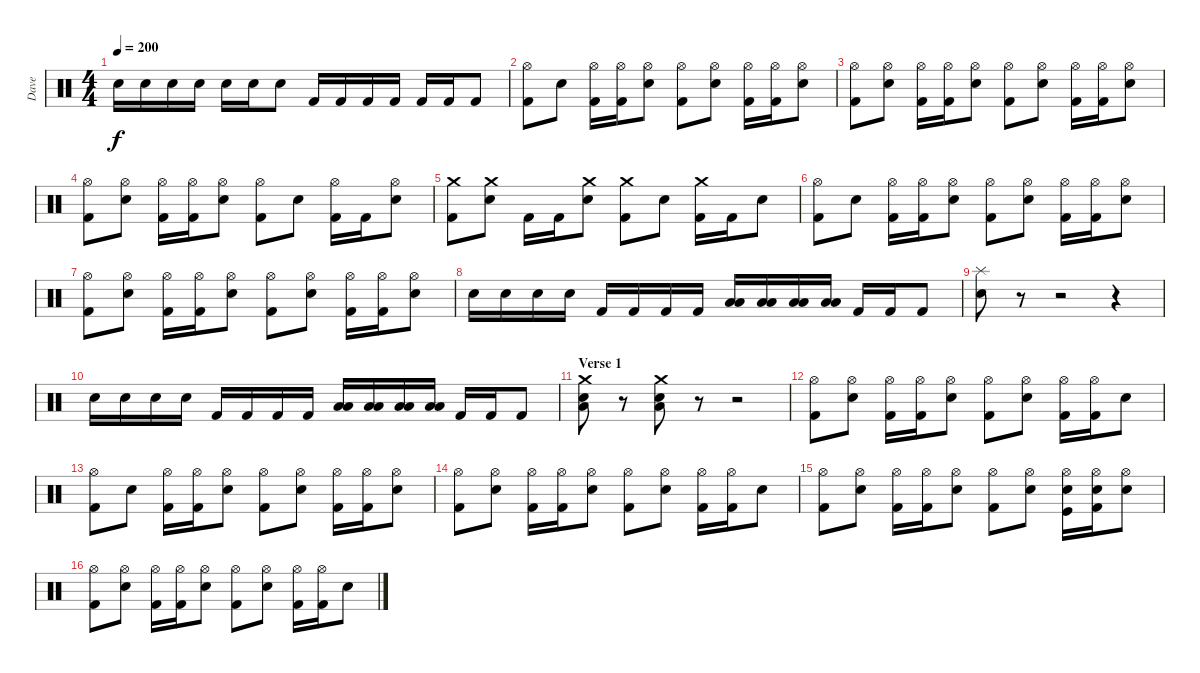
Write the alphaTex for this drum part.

\track ("Dave" "Dave") {instrument percussion}
\staff {score}
\articulation defaults
\ts (4 4)
\tempo 200
\clef neutral
\ks c "Snare (hit) 2".16{dy f} "Snare (hit) 2".16 "Snare (hit) 2".16 "Snare (hit) 2".16 "Snare (hit) 2".16 "Snare (hit) 2".16 "Snare (hit) 2".8 "Kick (hit) 2".16 "Kick (hit) 2".16 "Kick (hit) 2".16 "Kick (hit) 2".16 "Kick (hit) 2".16 "Kick (hit) 2".16 "Kick (hit) 2".8
|
("Hi-Hat (open)" "Kick (hit) 2").8 "Snare (hit) 2".8 ("Hi-Hat (open)" "Kick (hit) 2").16 ("Hi-Hat (open)" "Kick (hit) 2").16 ("Hi-Hat (open)" "Snare (hit) 2").8 ("Hi-Hat (open)" "Kick (hit) 2").8 ("Hi-Hat (open)" "Snare (hit) 2").8 ("Hi-Hat (open)" "Kick (hit) 2").16 ("Hi-Hat (open)" "Kick (hit) 2").16 ("Hi-Hat (open)" "Snare (hit) 2").8 |
("Hi-Hat (open)" "Kick (hit) 2").8 ("Hi-Hat (open)" "Snare (hit) 2").8 ("Hi-Hat (open)" "Kick (hit) 2").16 ("Hi-Hat (open)" "Kick (hit) 2").16 ("Hi-Hat (open)" "Snare (hit) 2").8 ("Hi-Hat (open)" "Kick (hit) 2").8 ("Hi-Hat (open)" "Snare (hit) 2").8 ("Hi-Hat (open)" "Kick (hit) 2").16 ("Hi-Hat (open)" "Kick (hit) 2").16 ("Hi-Hat (open)" "Snare (hit) 2").8 |
("Hi-Hat (open)" "Kick (hit) 2").8 ("Hi-Hat (open)" "Snare (hit) 2").8 ("Hi-Hat (open)" "Kick (hit) 2").16 ("Hi-Hat (open)" "Kick (hit) 2").16 ("Hi-Hat (open)" "Snare (hit) 2").8 ("Hi-Hat (open)" "Kick (hit) 2").8 "Snare (hit) 2".8 ("Hi-Hat (open)" "Kick (hit) 2").16 "Kick (hit) 2".16 ("Hi-Hat (open)" "Snare (hit) 2").8 |
("Crash medium (hit)" "Kick (hit) 2").8 ("Crash medium (hit)" "Snare (hit) 2").8 "Kick (hit) 2".16 "Kick (hit) 2".16 ("Crash medium (hit)" "Snare (hit) 2").8 ("Crash medium (hit)" "Kick (hit) 2").8 "Snare (hit) 2".8 ("Crash medium (hit)" "Kick (hit) 2").16 "Kick (hit) 2".16 "Snare (hit) 2".8 |
("Hi-Hat (open)" "Kick (hit) 2").8 "Snare (hit) 2".8 ("Hi-Hat (open)" "Kick (hit) 2").16 ("Hi-Hat (open)" "Kick (hit) 2").16 ("Hi-Hat (open)" "Snare (hit) 2").8 ("Hi-Hat (open)" "Kick (hit) 2").8 ("Hi-Hat (open)" "Snare (hit) 2").8 ("Hi-Hat (open)" "Kick (hit) 2").16 ("Hi-Hat (open)" "Kick (hit) 2").16 ("Hi-Hat (open)" "Snare (hit) 2").8 |
("Hi-Hat (open)" "Kick (hit) 2").8 ("Hi-Hat (open)" "Snare (hit) 2").8 ("Hi-Hat (open)" "Kick (hit) 2").16 ("Hi-Hat (open)" "Kick (hit) 2").16 ("Hi-Hat (open)" "Snare (hit) 2").8 ("Hi-Hat (open)" "Kick (hit) 2").8 ("Hi-Hat (open)" "Snare (hit) 2").8 ("Hi-Hat (open)" "Kick (hit) 2").16 ("Hi-Hat (open)" "Kick (hit) 2").16 ("Hi-Hat (open)" "Snare (hit) 2").8 |
"Snare (hit) 2".16 "Snare (hit) 2".16 "Snare (hit) 2".16 "Snare (hit) 2".16 "Kick (hit) 2".16 "Kick (hit) 2".16 "Kick (hit) 2".16 "Kick (hit) 2".16 ("Low Floor Tom (hit)" "Low Floor Tom (hit)").16 ("Low Floor Tom (hit)" "Low Floor Tom (hit)").16 ("Low Floor Tom (hit)" "Low Floor Tom (hit)").16 ("Low Floor Tom (hit)" "Low Floor Tom (hit)").16 "Kick (hit) 2".16 "Kick (hit) 2".16 "Kick (hit) 2".8 |
("Splash (hit)" "Snare (hit) 2").8 r.8 r.2 r.4 |
"Snare (hit) 2".16 "Snare (hit) 2".16 "Snare (hit) 2".16 "Snare (hit) 2".16 "Kick (hit) 2".16 "Kick (hit) 2".16 "Kick (hit) 2".16 "Kick (hit) 2".16 ("Low Floor Tom (hit)" "Low Floor Tom (hit)").16 ("Low Floor Tom (hit)" "Low Floor Tom (hit)").16 ("Low Floor Tom (hit)" "Low Floor Tom (hit)").16 ("Low Floor Tom (hit)" "Low Floor Tom (hit)").16 "Kick (hit) 2".16 "Kick (hit) 2".16 "Kick (hit) 2".8 |
\section ("" "Verse 1")
("Crash medium (hit)" "Snare (hit) 2" "Low Floor Tom (hit)").8 r.8 ("Crash medium (hit)" "Snare (hit) 2" "Low Floor Tom (hit)").8 r.8 r.2 |
("Hi-Hat (open)" "Kick (hit) 2").8 ("Hi-Hat (open)" "Snare (hit) 2").8 ("Hi-Hat (open)" "Kick (hit) 2").16 ("Hi-Hat (open)" "Kick (hit) 2").16 ("Hi-Hat (open)" "Snare (hit) 2").8 ("Hi-Hat (open)" "Kick (hit) 2").8 ("Hi-Hat (open)" "Snare (hit) 2").8 ("Hi-Hat (open)" "Kick (hit) 2").16 ("Hi-Hat (open)" "Kick (hit) 2").16 "Snare (hit) 2".8 |
("Hi-Hat (open)" "Kick (hit) 2").8 "Snare (hit) 2".8 ("Hi-Hat (open)" "Kick (hit) 2").16 ("Hi-Hat (open)" "Kick (hit) 2").16 ("Hi-Hat (open)" "Snare (hit) 2").8 ("Hi-Hat (open)" "Kick (hit) 2").8 ("Hi-Hat (open)" "Snare (hit) 2").8 ("Hi-Hat (open)" "Kick (hit) 2").16 ("Hi-Hat (open)" "Kick (hit) 2").16 ("Hi-Hat (open)" "Snare (hit) 2").8 |
("Hi-Hat (open)" "Kick (hit) 2").8 ("Hi-Hat (open)" "Snare (hit) 2").8 ("Hi-Hat (open)" "Kick (hit) 2").16 ("Hi-Hat (open)" "Kick (hit) 2").16 ("Hi-Hat (open)" "Snare (hit) 2").8 ("Hi-Hat (open)" "Kick (hit) 2").8 ("Hi-Hat (open)" "Snare (hit) 2").8 ("Hi-Hat (open)" "Kick (hit) 2").16 ("Hi-Hat (open)" "Kick (hit) 2").16 "Snare (hit) 2".8 |
("Hi-Hat (open)" "Kick (hit) 2").8 ("Hi-Hat (open)" "Snare (hit) 2").8 ("Hi-Hat (open)" "Kick (hit) 2").16 ("Hi-Hat (open)" "Kick (hit) 2").16 ("Hi-Hat (open)" "Snare (hit) 2").8 ("Hi-Hat (open)" "Kick (hit) 2").8 ("Hi-Hat (open)" "Snare (hit) 2").8 ("Hi-Hat (open)" "Snare (hit) 2" "Kick (hit)").16 ("Hi-Hat (open)" "Snare (hit) 2" "Kick (hit) 2").16 ("Hi-Hat (open)" "Snare (hit) 2").8 |
("Hi-Hat (open)" "Kick (hit) 2").8 ("Hi-Hat (open)" "Snare (hit) 2").8 ("Hi-Hat (open)" "Kick (hit) 2").16 ("Hi-Hat (open)" "Kick (hit) 2").16 ("Hi-Hat (open)" "Snare (hit) 2").8 ("Hi-Hat (open)" "Kick (hit) 2").8 ("Hi-Hat (open)" "Snare (hit) 2").8 ("Hi-Hat (open)" "Kick (hit) 2").16 ("Hi-Hat (open)" "Kick (hit) 2").16 "Snare (hit) 2".8
